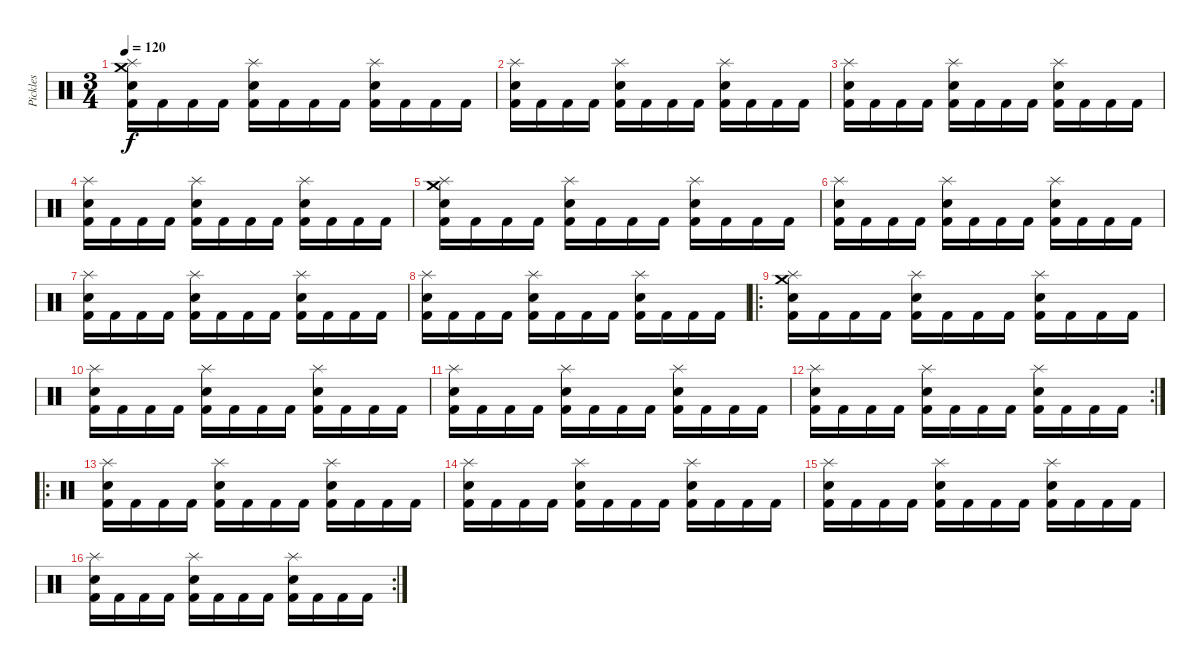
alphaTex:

\track ("Pickles" "Pickles") {instrument percussion}
\staff {score}
\articulation defaults
\ts (3 4)
\tempo 120
\clef neutral
\ks c
("Crash medium (hit)" "Splash (hit)" "Electric Snare (hit)" "Kick (hit) 2").16{dy f} "Kick (hit) 2".16 "Kick (hit) 2".16 "Kick (hit) 2".16 ("Splash (hit)" "Electric Snare (hit)" "Kick (hit) 2").16 "Kick (hit) 2".16 "Kick (hit) 2".16 "Kick (hit) 2".16 ("Splash (hit)" "Electric Snare (hit)" "Kick (hit) 2").16 "Kick (hit) 2".16 "Kick (hit) 2".16 "Kick (hit) 2".16 |
("Splash (hit)" "Electric Snare (hit)" "Kick (hit) 2").16 "Kick (hit) 2".16 "Kick (hit) 2".16 "Kick (hit) 2".16 ("Splash (hit)" "Electric Snare (hit)" "Kick (hit) 2").16 "Kick (hit) 2".16 "Kick (hit) 2".16 "Kick (hit) 2".16 ("Splash (hit)" "Electric Snare (hit)" "Kick (hit) 2").16 "Kick (hit) 2".16 "Kick (hit) 2".16 "Kick (hit) 2".16 |
("Splash (hit)" "Electric Snare (hit)" "Kick (hit) 2").16 "Kick (hit) 2".16 "Kick (hit) 2".16 "Kick (hit) 2".16 ("Splash (hit)" "Electric Snare (hit)" "Kick (hit) 2").16 "Kick (hit) 2".16 "Kick (hit) 2".16 "Kick (hit) 2".16 ("Splash (hit)" "Electric Snare (hit)" "Kick (hit) 2").16 "Kick (hit) 2".16 "Kick (hit) 2".16 "Kick (hit) 2".16 |
("Splash (hit)" "Electric Snare (hit)" "Kick (hit) 2").16 "Kick (hit) 2".16 "Kick (hit) 2".16 "Kick (hit) 2".16 ("Splash (hit)" "Electric Snare (hit)" "Kick (hit) 2").16 "Kick (hit) 2".16 "Kick (hit) 2".16 "Kick (hit) 2".16 ("Splash (hit)" "Electric Snare (hit)" "Kick (hit) 2").16 "Kick (hit) 2".16 "Kick (hit) 2".16 "Kick (hit) 2".16 |
("Crash medium (hit)" "Splash (hit)" "Electric Snare (hit)" "Kick (hit) 2").16 "Kick (hit) 2".16 "Kick (hit) 2".16 "Kick (hit) 2".16 ("Splash (hit)" "Electric Snare (hit)" "Kick (hit) 2").16 "Kick (hit) 2".16 "Kick (hit) 2".16 "Kick (hit) 2".16 ("Splash (hit)" "Electric Snare (hit)" "Kick (hit) 2").16 "Kick (hit) 2".16 "Kick (hit) 2".16 "Kick (hit) 2".16 |
("Splash (hit)" "Electric Snare (hit)" "Kick (hit) 2").16 "Kick (hit) 2".16 "Kick (hit) 2".16 "Kick (hit) 2".16 ("Splash (hit)" "Electric Snare (hit)" "Kick (hit) 2").16 "Kick (hit) 2".16 "Kick (hit) 2".16 "Kick (hit) 2".16 ("Splash (hit)" "Electric Snare (hit)" "Kick (hit) 2").16 "Kick (hit) 2".16 "Kick (hit) 2".16 "Kick (hit) 2".16 |
("Splash (hit)" "Electric Snare (hit)" "Kick (hit) 2").16 "Kick (hit) 2".16 "Kick (hit) 2".16 "Kick (hit) 2".16 ("Splash (hit)" "Electric Snare (hit)" "Kick (hit) 2").16 "Kick (hit) 2".16 "Kick (hit) 2".16 "Kick (hit) 2".16 ("Splash (hit)" "Electric Snare (hit)" "Kick (hit) 2").16 "Kick (hit) 2".16 "Kick (hit) 2".16 "Kick (hit) 2".16 |
("Splash (hit)" "Electric Snare (hit)" "Kick (hit) 2").16 "Kick (hit) 2".16 "Kick (hit) 2".16 "Kick (hit) 2".16 ("Splash (hit)" "Electric Snare (hit)" "Kick (hit) 2").16 "Kick (hit) 2".16 "Kick (hit) 2".16 "Kick (hit) 2".16 ("Splash (hit)" "Electric Snare (hit)" "Kick (hit) 2").16 "Kick (hit) 2".16 "Kick (hit) 2".16 "Kick (hit) 2".16 |
\ro
("Crash medium (hit)" "Splash (hit)" "Electric Snare (hit)" "Kick (hit) 2").16 "Kick (hit) 2".16 "Kick (hit) 2".16 "Kick (hit) 2".16 ("Splash (hit)" "Electric Snare (hit)" "Kick (hit) 2").16 "Kick (hit) 2".16 "Kick (hit) 2".16 "Kick (hit) 2".16 ("Splash (hit)" "Electric Snare (hit)" "Kick (hit) 2").16 "Kick (hit) 2".16 "Kick (hit) 2".16 "Kick (hit) 2".16 |
("Splash (hit)" "Electric Snare (hit)" "Kick (hit) 2").16 "Kick (hit) 2".16 "Kick (hit) 2".16 "Kick (hit) 2".16 ("Splash (hit)" "Electric Snare (hit)" "Kick (hit) 2").16 "Kick (hit) 2".16 "Kick (hit) 2".16 "Kick (hit) 2".16 ("Splash (hit)" "Electric Snare (hit)" "Kick (hit) 2").16 "Kick (hit) 2".16 "Kick (hit) 2".16 "Kick (hit) 2".16 |
("Splash (hit)" "Electric Snare (hit)" "Kick (hit) 2").16 "Kick (hit) 2".16 "Kick (hit) 2".16 "Kick (hit) 2".16 ("Splash (hit)" "Electric Snare (hit)" "Kick (hit) 2").16 "Kick (hit) 2".16 "Kick (hit) 2".16 "Kick (hit) 2".16 ("Splash (hit)" "Electric Snare (hit)" "Kick (hit) 2").16 "Kick (hit) 2".16 "Kick (hit) 2".16 "Kick (hit) 2".16 |
\rc 2
("Splash (hit)" "Electric Snare (hit)" "Kick (hit) 2").16 "Kick (hit) 2".16 "Kick (hit) 2".16 "Kick (hit) 2".16 ("Splash (hit)" "Electric Snare (hit)" "Kick (hit) 2").16 "Kick (hit) 2".16 "Kick (hit) 2".16 "Kick (hit) 2".16 ("Splash (hit)" "Electric Snare (hit)" "Kick (hit) 2").16 "Kick (hit) 2".16 "Kick (hit) 2".16 "Kick (hit) 2".16 |
\ro
("Splash (hit)" "Electric Snare (hit)" "Kick (hit) 2").16 "Kick (hit) 2".16 "Kick (hit) 2".16 "Kick (hit) 2".16 ("Splash (hit)" "Electric Snare (hit)" "Kick (hit) 2").16 "Kick (hit) 2".16 "Kick (hit) 2".16 "Kick (hit) 2".16 ("Splash (hit)" "Electric Snare (hit)" "Kick (hit) 2").16 "Kick (hit) 2".16 "Kick (hit) 2".16 "Kick (hit) 2".16 |
("Splash (hit)" "Electric Snare (hit)" "Kick (hit) 2").16 "Kick (hit) 2".16 "Kick (hit) 2".16 "Kick (hit) 2".16 ("Splash (hit)" "Electric Snare (hit)" "Kick (hit) 2").16 "Kick (hit) 2".16 "Kick (hit) 2".16 "Kick (hit) 2".16 ("Splash (hit)" "Electric Snare (hit)" "Kick (hit) 2").16 "Kick (hit) 2".16 "Kick (hit) 2".16 "Kick (hit) 2".16 |
("Splash (hit)" "Electric Snare (hit)" "Kick (hit) 2").16 "Kick (hit) 2".16 "Kick (hit) 2".16 "Kick (hit) 2".16 ("Splash (hit)" "Electric Snare (hit)" "Kick (hit) 2").16 "Kick (hit) 2".16 "Kick (hit) 2".16 "Kick (hit) 2".16 ("Splash (hit)" "Electric Snare (hit)" "Kick (hit) 2").16 "Kick (hit) 2".16 "Kick (hit) 2".16 "Kick (hit) 2".16 |
\rc 2
("Splash (hit)" "Electric Snare (hit)" "Kick (hit) 2").16 "Kick (hit) 2".16 "Kick (hit) 2".16 "Kick (hit) 2".16 ("Splash (hit)" "Electric Snare (hit)" "Kick (hit) 2").16 "Kick (hit) 2".16 "Kick (hit) 2".16 "Kick (hit) 2".16 ("Splash (hit)" "Electric Snare (hit)" "Kick (hit) 2").16 "Kick (hit) 2".16 "Kick (hit) 2".16 "Kick (hit) 2".16
